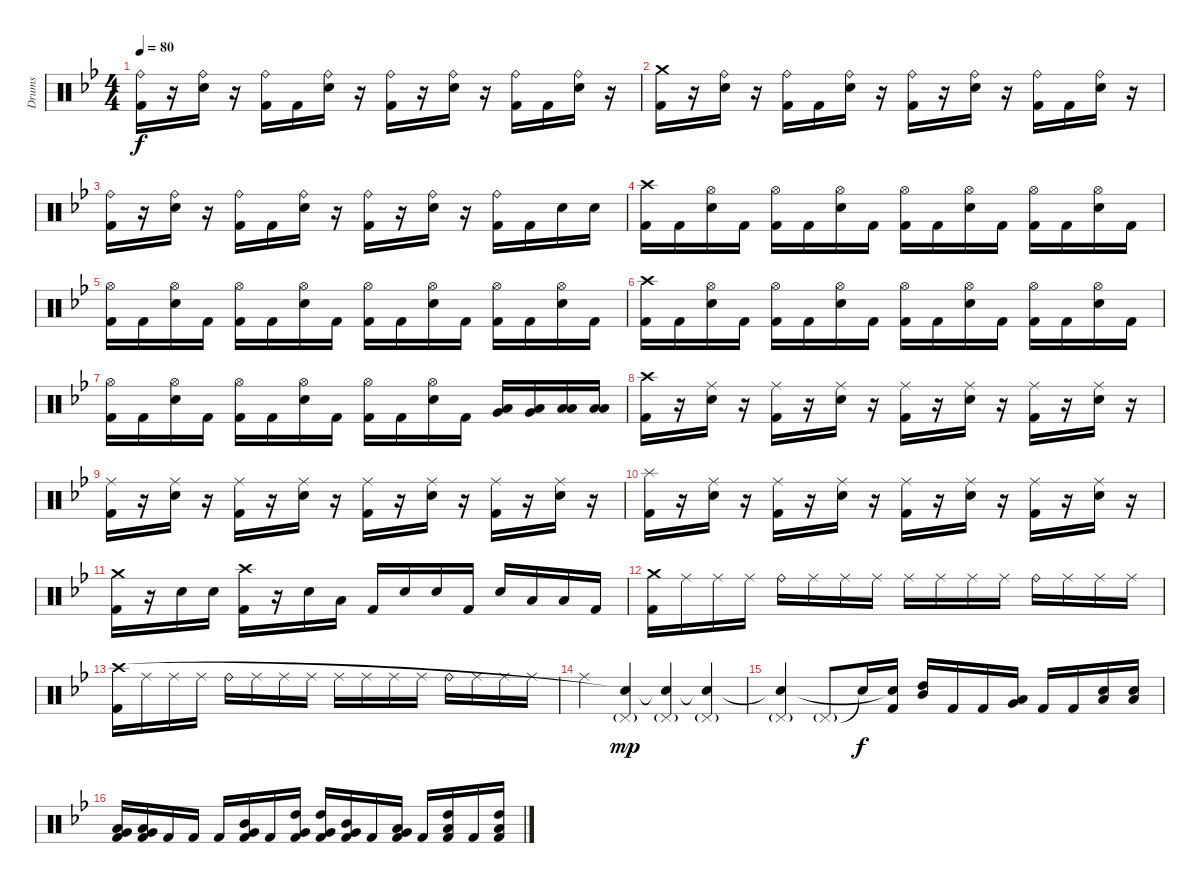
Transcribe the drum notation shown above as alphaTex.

\track ("Drums" "Drums") {instrument percussion}
\staff {score}
\articulation defaults
\ts (4 4)
\tempo 80
\clef neutral
\ks gminor
("Kick (hit) 2" "Ride (bell)").16{dy f} r.16 ("Electric Snare (hit)" "Ride (bell)").16 r.16 ("Kick (hit) 2" "Ride (bell)").16 "Kick (hit) 2".16 ("Electric Snare (hit)" "Ride (bell)").16 r.16 ("Kick (hit) 2" "Ride (bell)").16 r.16 ("Electric Snare (hit)" "Ride (bell)").16 r.16 ("Kick (hit) 2" "Ride (bell)").16 "Kick (hit) 2".16 ("Electric Snare (hit)" "Ride (bell)").16 r.16 |
("Kick (hit) 2" "Crash medium (hit)").16 r.16 ("Electric Snare (hit)" "Ride (bell)").16 r.16 ("Kick (hit) 2" "Ride (bell)").16 "Kick (hit) 2".16 ("Electric Snare (hit)" "Ride (bell)").16 r.16 ("Kick (hit) 2" "Ride (bell)").16 r.16 ("Electric Snare (hit)" "Ride (bell)").16 r.16 ("Kick (hit) 2" "Ride (bell)").16 "Kick (hit) 2".16 ("Electric Snare (hit)" "Ride (bell)").16 r.16 |
("Kick (hit) 2" "Ride (bell)").16 r.16 ("Electric Snare (hit)" "Ride (bell)").16 r.16 ("Kick (hit) 2" "Ride (bell)").16 "Kick (hit) 2".16 ("Electric Snare (hit)" "Ride (bell)").16 r.16 ("Kick (hit) 2" "Ride (bell)").16 r.16 ("Electric Snare (hit)" "Ride (bell)").16 r.16 ("Kick (hit) 2" "Ride (bell)").16 "Kick (hit) 2".16 "Electric Snare (hit)".16 "Electric Snare (hit)".16 |
("Kick (hit) 2" "Crash high (hit)").16 "Kick (hit) 2".16 ("Electric Snare (hit)" "Hi-Hat (open)").16 "Kick (hit) 2".16 ("Kick (hit) 2" "Hi-Hat (open)").16 "Kick (hit) 2".16 ("Electric Snare (hit)" "Hi-Hat (open)").16 "Kick (hit) 2".16 ("Kick (hit) 2" "Hi-Hat (open)").16 "Kick (hit) 2".16 ("Electric Snare (hit)" "Hi-Hat (open)").16 "Kick (hit) 2".16 ("Kick (hit) 2" "Hi-Hat (open)").16 "Kick (hit) 2".16 ("Electric Snare (hit)" "Hi-Hat (open)").16 "Kick (hit) 2".16 |
("Kick (hit) 2" "Hi-Hat (open)").16 "Kick (hit) 2".16 ("Electric Snare (hit)" "Hi-Hat (open)").16 "Kick (hit) 2".16 ("Kick (hit) 2" "Hi-Hat (open)").16 "Kick (hit) 2".16 ("Electric Snare (hit)" "Hi-Hat (open)").16 "Kick (hit) 2".16 ("Kick (hit) 2" "Hi-Hat (open)").16 "Kick (hit) 2".16 ("Electric Snare (hit)" "Hi-Hat (open)").16 "Kick (hit) 2".16 ("Kick (hit) 2" "Hi-Hat (open)").16 "Kick (hit) 2".16 ("Electric Snare (hit)" "Hi-Hat (open)").16 "Kick (hit) 2".16 |
("Kick (hit) 2" "Crash high (hit)").16 "Kick (hit) 2".16 ("Electric Snare (hit)" "Hi-Hat (open)").16 "Kick (hit) 2".16 ("Kick (hit) 2" "Hi-Hat (open)").16 "Kick (hit) 2".16 ("Electric Snare (hit)" "Hi-Hat (open)").16 "Kick (hit) 2".16 ("Kick (hit) 2" "Hi-Hat (open)").16 "Kick (hit) 2".16 ("Electric Snare (hit)" "Hi-Hat (open)").16 "Kick (hit) 2".16 ("Kick (hit) 2" "Hi-Hat (open)").16 "Kick (hit) 2".16 ("Electric Snare (hit)" "Hi-Hat (open)").16 "Kick (hit) 2".16 |
("Kick (hit) 2" "Hi-Hat (open)").16 "Kick (hit) 2".16 ("Electric Snare (hit)" "Hi-Hat (open)").16 "Kick (hit) 2".16 ("Kick (hit) 2" "Hi-Hat (open)").16 "Kick (hit) 2".16 ("Electric Snare (hit)" "Hi-Hat (open)").16 "Kick (hit) 2".16 ("Kick (hit) 2" "Hi-Hat (open)").16 "Kick (hit) 2".16 ("Electric Snare (hit)" "Hi-Hat (open)").16 "Kick (hit) 2".16 ("Very Low Tom (hit)" "Low Tom (hit)").16 ("Very Low Tom (hit)" "Low Tom (hit)").16 ("Low Floor Tom (hit)" "Low Tom (hit)").16 ("Low Floor Tom (hit)" "Low Tom (hit)").16 |
("Kick (hit) 2" "Crash high (hit)").16 r.16 ("Electric Snare (hit)" "Ride (middle)").16 r.16 ("Kick (hit) 2" "Ride (middle)").16 r.16 ("Electric Snare (hit)" "Ride (middle)").16 r.16 ("Kick (hit) 2" "Ride (middle)").16 r.16 ("Electric Snare (hit)" "Ride (middle)").16 r.16 ("Kick (hit) 2" "Ride (middle)").16 r.16 ("Electric Snare (hit)" "Ride (middle)").16 r.16 |
("Kick (hit) 2" "Ride (middle)").16 r.16 ("Electric Snare (hit)" "Ride (middle)").16 r.16 ("Kick (hit) 2" "Ride (middle)").16 r.16 ("Electric Snare (hit)" "Ride (middle)").16 r.16 ("Kick (hit) 2" "Ride (middle)").16 r.16 ("Electric Snare (hit)" "Ride (middle)").16 r.16 ("Kick (hit) 2" "Ride (middle)").16 r.16 ("Electric Snare (hit)" "Ride (middle)").16 r.16 |
("Kick (hit) 2" "Splash (hit)").16 r.16 ("Electric Snare (hit)" "Ride (middle)").16 r.16 ("Kick (hit) 2" "Ride (middle)").16 r.16 ("Electric Snare (hit)" "Ride (middle)").16 r.16 ("Kick (hit) 2" "Ride (middle)").16 r.16 ("Electric Snare (hit)" "Ride (middle)").16 r.16 ("Kick (hit) 2" "Ride (middle)").16 r.16 ("Electric Snare (hit)" "Ride (middle)").16 r.16 |
("Kick (hit) 2" "Crash medium (hit)").16 r.16 "Electric Snare (hit)".16 "Electric Snare (hit)".16 ("Kick (hit) 2" "Crash high (hit)").16 r.16 "Electric Snare (hit)".16 "Low Tom (hit)".16 "Kick (hit) 2".16 "Snare (hit) 2".16 "Snare (hit) 2".16 "Kick (hit) 2".16 "Electric Snare (hit)".16 "Low Tom (hit)".16 "Low Tom (hit)".16 "Kick (hit) 2".16 |
("Kick (hit) 2" "Crash medium (hit)").16 "Ride (middle)".16 "Ride (middle)".16 "Ride (middle)".16 "Ride (bell)".16 "Ride (middle)".16 "Ride (middle)".16 "Ride (middle)".16 "Ride (middle)".16 "Ride (middle)".16 "Ride (middle)".16 "Ride (middle)".16 "Ride (bell)".16 "Ride (middle)".16 "Ride (middle)".16 "Ride (middle)".16 |
("Kick (hit) 2" "Crash high (hit)").16 "Ride (middle)".16 "Ride (middle)".16 "Ride (middle)".16 "Ride (bell)".16 "Ride (middle)".16 "Ride (middle)".16 "Ride (middle)".16 "Ride (middle)".16 "Ride (middle)".16 "Ride (middle)".16 "Ride (middle)".16 "Ride (bell)".16 "Ride (middle)".16 "Ride (middle)".16 "Ride (middle)".16 |
"Ride (middle)".4 ("Pedal Hi-Hat (hit)"{g} "Snare (hit)"{t}).4{dy mp} ("Pedal Hi-Hat (hit)"{g} "Snare (hit)"{t}).4 ("Pedal Hi-Hat (hit)"{g} "Snare (hit)"{t}).4 |
("Pedal Hi-Hat (hit)"{g} "Snare (hit)"{t}).4 "Pedal Hi-Hat (hit)"{g}.8 "Snare (hit)"{t}.16{dy f} ("Kick (hit) 2" "Snare (hit)"{t}).16 ("Mid Tom (hit)" "High Tom (hit)").16{bu 120} "Kick (hit) 2".16 "Kick (hit) 2".16 ("Low Tom (hit)" "Very Low Tom (hit)").16{bu 120} "Kick (hit) 2".16 "Kick (hit) 2".16 ("Low Floor Tom (hit)" "Snare (hit) 2").16 ("Low Floor Tom (hit)" "Electric Snare (hit)").16 |
("Low Floor Tom (hit)" "Very Low Tom (hit)" "Kick (hit) 2").16 ("Low Floor Tom (hit)" "Very Low Tom (hit)" "Kick (hit) 2").16 "Kick (hit) 2".16 "Kick (hit) 2".16 "Kick (hit) 2".16 ("Mid Tom (hit)" "Very Low Tom (hit)" "Kick (hit) 2").16 "Kick (hit) 2".16 ("High Tom (hit)" "Very Low Tom (hit)" "Kick (hit) 2").16 ("High Tom (hit)" "Very Low Tom (hit)" "Kick (hit) 2").16 ("Mid Tom (hit)" "Very Low Tom (hit)" "Kick (hit) 2").16 "Kick (hit) 2".16 ("Low Tom (hit)" "Very Low Tom (hit)" "Kick (hit) 2").16 "Kick (hit) 2".16 ("High Tom (hit)" "Low Floor Tom (hit)" "Kick (hit) 2").16 "Kick (hit) 2".16 ("High Tom (hit)" "Low Floor Tom (hit)" "Kick (hit) 2").16
